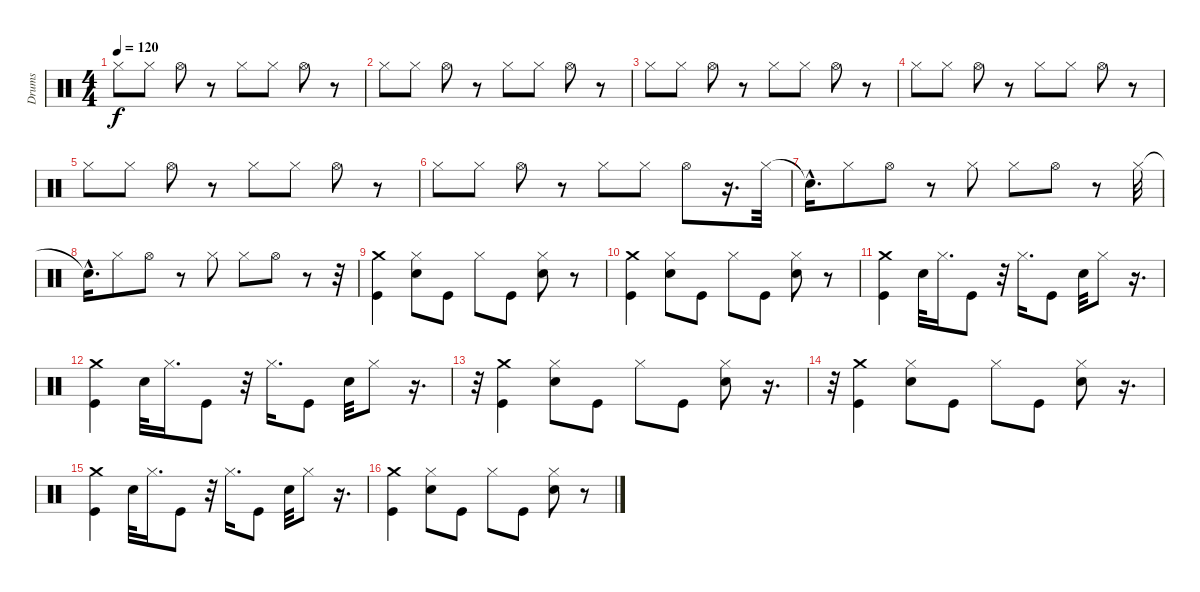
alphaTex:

\track ("Drums" "Drums") {instrument percussion}
\staff {score}
\articulation defaults
\ts (4 4)
\tempo 120
\clef neutral
\ks c "Hi-Hat (closed)".8{dy f} "Hi-Hat (closed)".8 "Hi-Hat (open)".8
r.8 "Hi-Hat (closed)".8 "Hi-Hat (closed)".8 "Hi-Hat (open)".8 r.8 |
"Hi-Hat (closed)".8 "Hi-Hat (closed)".8 "Hi-Hat (open)".8 r.8 "Hi-Hat (closed)".8 "Hi-Hat (closed)".8 "Hi-Hat (open)".8 r.8 |
"Hi-Hat (closed)".8 "Hi-Hat (closed)".8 "Hi-Hat (open)".8 r.8 "Hi-Hat (closed)".8 "Hi-Hat (closed)".8 "Hi-Hat (open)".8 r.8 |
"Hi-Hat (closed)".8 "Hi-Hat (closed)".8 "Hi-Hat (open)".8 r.8 "Hi-Hat (closed)".8 "Hi-Hat (closed)".8 "Hi-Hat (open)".8 r.8 |
"Hi-Hat (closed)".8 "Hi-Hat (closed)".8 "Hi-Hat (open)".8 r.8 "Hi-Hat (closed)".8 "Hi-Hat (closed)".8 "Hi-Hat (open)".8 r.8 |
"Hi-Hat (closed)".8 "Hi-Hat (closed)".8 "Hi-Hat (open)".8 r.8 "Hi-Hat (closed)".8 "Hi-Hat (closed)".8 "Hi-Hat (open)".8 r.16{d} "Hi-Hat (closed)".32 |
"Snare (hit)"{hac t}.16{d} "Hi-Hat (closed)".8 "Hi-Hat (open)".8 r.8 "Hi-Hat (closed)".8 "Hi-Hat (closed)".8 "Hi-Hat (open)".8 r.8 "Hi-Hat (closed)".32 |
"Snare (hit)"{hac t}.16{d} "Hi-Hat (closed)".8 "Hi-Hat (open)".8 r.8 "Hi-Hat (closed)".8 "Hi-Hat (closed)".8 "Hi-Hat (open)".8 r.8 r.32 |
("Crash medium (hit)" "Kick (hit)").4 ("Electric Snare (hit)" "Hi-Hat (closed)").8 "Kick (hit)".8 "Hi-Hat (closed)".8 "Kick (hit)".8 ("Electric Snare (hit)" "Hi-Hat (closed)").8 r.8 |
("Crash medium (hit)" "Kick (hit)").4 ("Electric Snare (hit)" "Hi-Hat (closed)").8 "Kick (hit)".8 "Hi-Hat (closed)".8 "Kick (hit)".8 ("Electric Snare (hit)" "Hi-Hat (closed)").8 r.8 |
("Crash medium (hit)" "Kick (hit)").4 "Electric Snare (hit)".32 "Hi-Hat (closed)".16{d} "Kick (hit)".8 r.32 "Hi-Hat (closed)".16{d} "Kick (hit)".8 "Electric Snare (hit)".32 "Hi-Hat (closed)".8 r.16{d} |
("Crash medium (hit)" "Kick (hit)").4 "Electric Snare (hit)".32 "Hi-Hat (closed)".16{d} "Kick (hit)".8 r.32 "Hi-Hat (closed)".16{d} "Kick (hit)".8 "Electric Snare (hit)".32 "Hi-Hat (closed)".8 r.16{d} |
r.32 ("Crash medium (hit)" "Kick (hit)").4 ("Electric Snare (hit)" "Hi-Hat (closed)").8 "Kick (hit)".8 "Hi-Hat (closed)".8 "Kick (hit)".8 ("Electric Snare (hit)" "Hi-Hat (closed)").8 r.16{d} |
r.32 ("Crash medium (hit)" "Kick (hit)").4 ("Electric Snare (hit)" "Hi-Hat (closed)").8 "Kick (hit)".8 "Hi-Hat (closed)".8 "Kick (hit)".8 ("Electric Snare (hit)" "Hi-Hat (closed)").8 r.16{d} |
("Crash medium (hit)" "Kick (hit)").4 "Electric Snare (hit)".32 "Hi-Hat (closed)".16{d} "Kick (hit)".8 r.32 "Hi-Hat (closed)".16{d} "Kick (hit)".8 "Electric Snare (hit)".32 "Hi-Hat (closed)".8 r.16{d} |
("Crash medium (hit)" "Kick (hit)").4 ("Electric Snare (hit)" "Hi-Hat (closed)").8 "Kick (hit)".8 "Hi-Hat (closed)".8 "Kick (hit)".8 ("Electric Snare (hit)" "Hi-Hat (closed)").8 r.8
